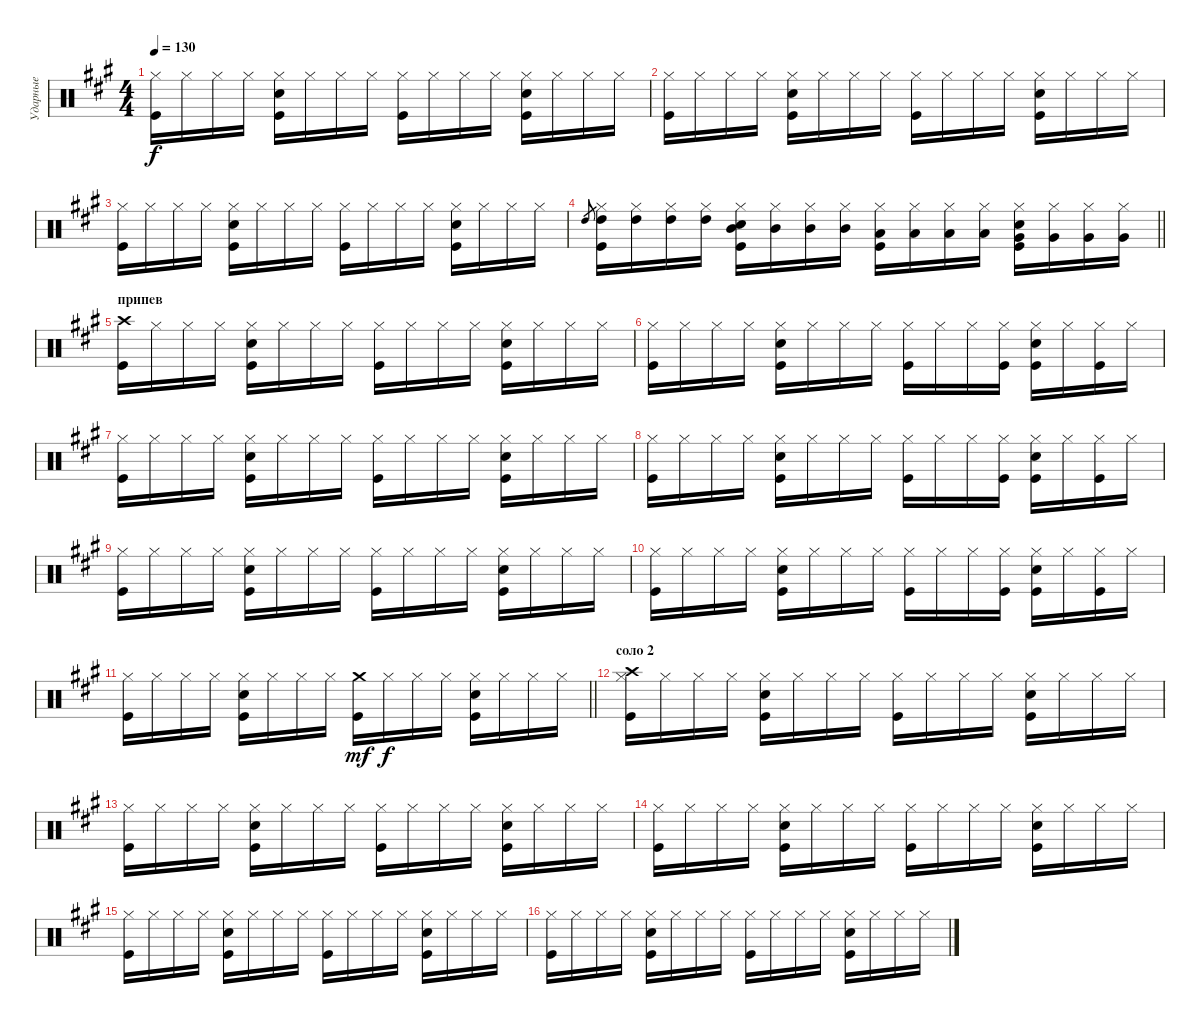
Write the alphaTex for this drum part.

\track ("Ударные" "Ударные") {instrument percussion}
\staff {score}
\articulation defaults
\ts (4 4)
\tempo 130
\clef neutral
\ks f#minor
("Hi-Hat (closed)" "Kick (hit)").16{dy f} "Hi-Hat (closed)".16 "Hi-Hat (closed)".16 "Hi-Hat (closed)".16 ("Hi-Hat (closed)" "Snare (hit) 2" "Kick (hit)").16 "Hi-Hat (closed)".16 "Hi-Hat (closed)".16 "Hi-Hat (closed)".16 ("Hi-Hat (closed)" "Kick (hit)").16 "Hi-Hat (closed)".16 "Hi-Hat (closed)".16 "Hi-Hat (closed)".16 ("Hi-Hat (closed)" "Snare (hit) 2" "Kick (hit)").16 "Hi-Hat (closed)".16 "Hi-Hat (closed)".16 "Hi-Hat (closed)".16 |
("Hi-Hat (closed)" "Kick (hit)").16 "Hi-Hat (closed)".16 "Hi-Hat (closed)".16 "Hi-Hat (closed)".16 ("Hi-Hat (closed)" "Snare (hit) 2" "Kick (hit)").16 "Hi-Hat (closed)".16 "Hi-Hat (closed)".16 "Hi-Hat (closed)".16 ("Hi-Hat (closed)" "Kick (hit)").16 "Hi-Hat (closed)".16 "Hi-Hat (closed)".16 "Hi-Hat (closed)".16 ("Hi-Hat (closed)" "Snare (hit) 2" "Kick (hit)").16 "Hi-Hat (closed)".16 "Hi-Hat (closed)".16 "Hi-Hat (closed)".16 |
("Hi-Hat (closed)" "Kick (hit)").16 "Hi-Hat (closed)".16 "Hi-Hat (closed)".16 "Hi-Hat (closed)".16 ("Hi-Hat (closed)" "Snare (hit) 2" "Kick (hit)").16 "Hi-Hat (closed)".16 "Hi-Hat (closed)".16 "Hi-Hat (closed)".16 ("Hi-Hat (closed)" "Kick (hit)").16 "Hi-Hat (closed)".16 "Hi-Hat (closed)".16 "Hi-Hat (closed)".16 ("Hi-Hat (closed)" "Snare (hit) 2" "Kick (hit)").16 "Hi-Hat (closed)".16 "Hi-Hat (closed)".16 "Hi-Hat (closed)".16 |
\barLineRight lightlight "High Tom (hit)".8{gr}
("Hi-Hat (closed)" "Kick (hit)" "High Tom (hit)").16 ("Hi-Hat (closed)" "High Tom (hit)").16 ("Hi-Hat (closed)" "High Tom (hit)").16 ("Hi-Hat (closed)" "High Tom (hit)").16 ("Hi-Hat (closed)" "Snare (hit) 2" "Kick (hit)" "Mid Tom (hit)").16 ("Hi-Hat (closed)" "Mid Tom (hit)").16 ("Hi-Hat (closed)" "Mid Tom (hit)").16 ("Hi-Hat (closed)" "Mid Tom (hit)").16 ("Hi-Hat (closed)" "Kick (hit)" "Low Tom (hit)").16 ("Hi-Hat (closed)" "Low Tom (hit)").16 ("Hi-Hat (closed)" "Low Tom (hit)").16 ("Hi-Hat (closed)" "Low Tom (hit)").16 ("Hi-Hat (closed)" "Snare (hit) 2" "Kick (hit)" "Very Low Tom (hit)").16 ("Hi-Hat (closed)" "Very Low Tom (hit)").16 ("Hi-Hat (closed)" "Very Low Tom (hit)").16 ("Hi-Hat (closed)" "Very Low Tom (hit)").16 |
\section ("" "припев")
("Kick (hit)" "Crash high (hit)").16 "Hi-Hat (closed)".16 "Hi-Hat (closed)".16 "Hi-Hat (closed)".16 ("Hi-Hat (closed)" "Snare (hit) 2" "Kick (hit)").16 "Hi-Hat (closed)".16 "Hi-Hat (closed)".16 "Hi-Hat (closed)".16 ("Hi-Hat (closed)" "Kick (hit)").16 "Hi-Hat (closed)".16 "Hi-Hat (closed)".16 "Hi-Hat (closed)".16 ("Hi-Hat (closed)" "Snare (hit) 2" "Kick (hit)").16 "Hi-Hat (closed)".16 "Hi-Hat (closed)".16 "Hi-Hat (closed)".16 |
("Hi-Hat (closed)" "Kick (hit)").16 "Hi-Hat (closed)".16 "Hi-Hat (closed)".16 "Hi-Hat (closed)".16 ("Hi-Hat (closed)" "Snare (hit) 2" "Kick (hit)").16 "Hi-Hat (closed)".16 "Hi-Hat (closed)".16 "Hi-Hat (closed)".16 ("Hi-Hat (closed)" "Kick (hit)").16 "Hi-Hat (closed)".16 "Hi-Hat (closed)".16 ("Hi-Hat (closed)" "Kick (hit)").16 ("Hi-Hat (closed)" "Snare (hit) 2" "Kick (hit)").16 "Hi-Hat (closed)".16 ("Hi-Hat (closed)" "Kick (hit)").16 "Hi-Hat (closed)".16 |
("Hi-Hat (closed)" "Kick (hit)").16 "Hi-Hat (closed)".16 "Hi-Hat (closed)".16 "Hi-Hat (closed)".16 ("Hi-Hat (closed)" "Snare (hit) 2" "Kick (hit)").16 "Hi-Hat (closed)".16 "Hi-Hat (closed)".16 "Hi-Hat (closed)".16 ("Hi-Hat (closed)" "Kick (hit)").16 "Hi-Hat (closed)".16 "Hi-Hat (closed)".16 "Hi-Hat (closed)".16 ("Hi-Hat (closed)" "Snare (hit) 2" "Kick (hit)").16 "Hi-Hat (closed)".16 "Hi-Hat (closed)".16 "Hi-Hat (closed)".16 |
("Hi-Hat (closed)" "Kick (hit)").16 "Hi-Hat (closed)".16 "Hi-Hat (closed)".16 "Hi-Hat (closed)".16 ("Hi-Hat (closed)" "Snare (hit) 2" "Kick (hit)").16 "Hi-Hat (closed)".16 "Hi-Hat (closed)".16 "Hi-Hat (closed)".16 ("Hi-Hat (closed)" "Kick (hit)").16 "Hi-Hat (closed)".16 "Hi-Hat (closed)".16 ("Hi-Hat (closed)" "Kick (hit)").16 ("Hi-Hat (closed)" "Snare (hit) 2" "Kick (hit)").16 "Hi-Hat (closed)".16 ("Hi-Hat (closed)" "Kick (hit)").16 "Hi-Hat (closed)".16 |
("Hi-Hat (closed)" "Kick (hit)").16 "Hi-Hat (closed)".16 "Hi-Hat (closed)".16 "Hi-Hat (closed)".16 ("Hi-Hat (closed)" "Snare (hit) 2" "Kick (hit)").16 "Hi-Hat (closed)".16 "Hi-Hat (closed)".16 "Hi-Hat (closed)".16 ("Hi-Hat (closed)" "Kick (hit)").16 "Hi-Hat (closed)".16 "Hi-Hat (closed)".16 "Hi-Hat (closed)".16 ("Hi-Hat (closed)" "Snare (hit) 2" "Kick (hit)").16 "Hi-Hat (closed)".16 "Hi-Hat (closed)".16 "Hi-Hat (closed)".16 |
("Hi-Hat (closed)" "Kick (hit)").16 "Hi-Hat (closed)".16 "Hi-Hat (closed)".16 "Hi-Hat (closed)".16 ("Hi-Hat (closed)" "Snare (hit) 2" "Kick (hit)").16 "Hi-Hat (closed)".16 "Hi-Hat (closed)".16 "Hi-Hat (closed)".16 ("Hi-Hat (closed)" "Kick (hit)").16 "Hi-Hat (closed)".16 "Hi-Hat (closed)".16 ("Hi-Hat (closed)" "Kick (hit)").16 ("Hi-Hat (closed)" "Snare (hit) 2" "Kick (hit)").16 "Hi-Hat (closed)".16 ("Hi-Hat (closed)" "Kick (hit)").16 "Hi-Hat (closed)".16 |
\barLineRight lightlight
("Hi-Hat (closed)" "Kick (hit)").16 "Hi-Hat (closed)".16 "Hi-Hat (closed)".16 "Hi-Hat (closed)".16 ("Hi-Hat (closed)" "Snare (hit) 2" "Kick (hit)").16 "Hi-Hat (closed)".16 "Hi-Hat (closed)".16 "Hi-Hat (closed)".16 ("Crash medium (hit)" "Kick (hit)").16{dy mf} "Hi-Hat (closed)".16{dy f} "Hi-Hat (closed)".16 "Hi-Hat (closed)".16 ("Hi-Hat (closed)" "Snare (hit) 2" "Kick (hit)").16 "Hi-Hat (closed)".16 "Hi-Hat (closed)".16 "Hi-Hat (closed)".16 |
\section ("" "соло 2")
("Kick (hit)" "Hi-Hat (closed)" "Crash high (hit)").16 "Hi-Hat (closed)".16 "Hi-Hat (closed)".16 "Hi-Hat (closed)".16 ("Hi-Hat (closed)" "Snare (hit) 2" "Kick (hit)").16 "Hi-Hat (closed)".16 "Hi-Hat (closed)".16 "Hi-Hat (closed)".16 ("Hi-Hat (closed)" "Kick (hit)").16 "Hi-Hat (closed)".16 "Hi-Hat (closed)".16 "Hi-Hat (closed)".16 ("Hi-Hat (closed)" "Snare (hit) 2" "Kick (hit)").16 "Hi-Hat (closed)".16 "Hi-Hat (closed)".16 "Hi-Hat (closed)".16 |
("Hi-Hat (closed)" "Kick (hit)").16 "Hi-Hat (closed)".16 "Hi-Hat (closed)".16 "Hi-Hat (closed)".16 ("Hi-Hat (closed)" "Snare (hit) 2" "Kick (hit)").16 "Hi-Hat (closed)".16 "Hi-Hat (closed)".16 "Hi-Hat (closed)".16 ("Hi-Hat (closed)" "Kick (hit)").16 "Hi-Hat (closed)".16 "Hi-Hat (closed)".16 "Hi-Hat (closed)".16 ("Hi-Hat (closed)" "Snare (hit) 2" "Kick (hit)").16 "Hi-Hat (closed)".16 "Hi-Hat (closed)".16 "Hi-Hat (closed)".16 |
("Hi-Hat (closed)" "Kick (hit)").16 "Hi-Hat (closed)".16 "Hi-Hat (closed)".16 "Hi-Hat (closed)".16 ("Hi-Hat (closed)" "Snare (hit) 2" "Kick (hit)").16 "Hi-Hat (closed)".16 "Hi-Hat (closed)".16 "Hi-Hat (closed)".16 ("Hi-Hat (closed)" "Kick (hit)").16 "Hi-Hat (closed)".16 "Hi-Hat (closed)".16 "Hi-Hat (closed)".16 ("Hi-Hat (closed)" "Snare (hit) 2" "Kick (hit)").16 "Hi-Hat (closed)".16 "Hi-Hat (closed)".16 "Hi-Hat (closed)".16 |
("Hi-Hat (closed)" "Kick (hit)").16 "Hi-Hat (closed)".16 "Hi-Hat (closed)".16 "Hi-Hat (closed)".16 ("Hi-Hat (closed)" "Snare (hit) 2" "Kick (hit)").16 "Hi-Hat (closed)".16 "Hi-Hat (closed)".16 "Hi-Hat (closed)".16 ("Hi-Hat (closed)" "Kick (hit)").16 "Hi-Hat (closed)".16 "Hi-Hat (closed)".16 "Hi-Hat (closed)".16 ("Hi-Hat (closed)" "Snare (hit) 2" "Kick (hit)").16 "Hi-Hat (closed)".16 "Hi-Hat (closed)".16 "Hi-Hat (closed)".16 |
("Kick (hit)" "Hi-Hat (closed)").16 "Hi-Hat (closed)".16 "Hi-Hat (closed)".16 "Hi-Hat (closed)".16 ("Hi-Hat (closed)" "Snare (hit) 2" "Kick (hit)").16 "Hi-Hat (closed)".16 "Hi-Hat (closed)".16 "Hi-Hat (closed)".16 ("Hi-Hat (closed)" "Kick (hit)").16 "Hi-Hat (closed)".16 "Hi-Hat (closed)".16 "Hi-Hat (closed)".16 ("Hi-Hat (closed)" "Snare (hit) 2" "Kick (hit)").16 "Hi-Hat (closed)".16 "Hi-Hat (closed)".16 "Hi-Hat (closed)".16
